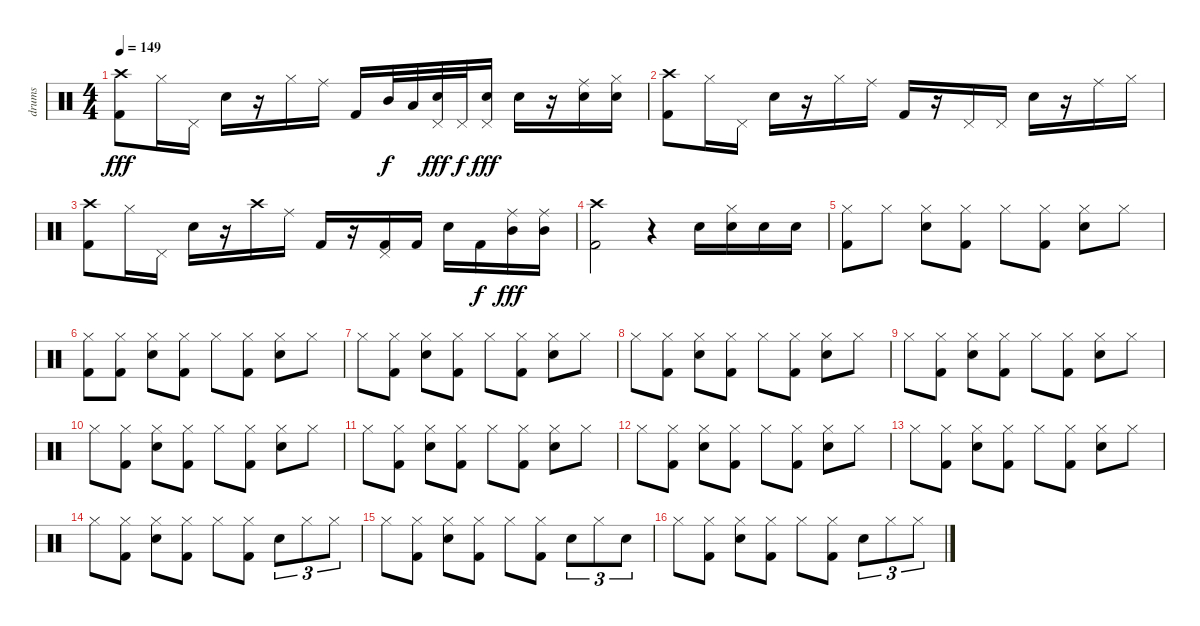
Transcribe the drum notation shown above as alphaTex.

\track ("drums" "drums") {instrument percussion}
\staff {score}
\articulation defaults
\ts (4 4)
\tempo 149
\clef neutral
\ks c
("Crash high (hit)" "Kick (hit) 2").8{dy fff} "Hi-Hat (closed)".16 "Pedal Hi-Hat (hit)".16 "Snare (hit) 2".16 r.16 "Hi-Hat (closed)".16 "Ride (middle)".16 "Kick (hit) 2".16 "Mid Tom (hit)".32{dy f} "Low Floor Tom (hit)".32 ("Pedal Hi-Hat (hit)" "Snare (hit) 2").32{dy fff} "Pedal Hi-Hat (hit)".32{dy f} ("Pedal Hi-Hat (hit)" "Snare (hit) 2").16{dy fff} "Snare (hit) 2".16 r.16 ("Ride (middle)" "Snare (hit) 2").16 ("Hi-Hat (closed)" "Snare (hit) 2").16 |
("Crash high (hit)" "Kick (hit) 2").8 "Hi-Hat (closed)".16 "Pedal Hi-Hat (hit)".16 "Snare (hit) 2".16 r.16 "Hi-Hat (closed)".16 "Ride (middle)".16 "Kick (hit) 2".16 r.16 "Pedal Hi-Hat (hit)".16 "Pedal Hi-Hat (hit)".16 "Snare (hit) 2".16 r.16 "Ride (middle)".16 "Hi-Hat (closed)".16 |
("Crash high (hit)" "Kick (hit) 2").8 "Hi-Hat (closed)".16 "Pedal Hi-Hat (hit)".16 "Snare (hit) 2".16 r.16 "Crash high (hit)".16 "Ride (middle)".16 "Kick (hit) 2".16 r.16 ("Pedal Hi-Hat (hit)" "Kick (hit) 2").16 "Kick (hit) 2".16 "Snare (hit) 2".16 "Kick (hit) 2".16{dy f} ("Ride (middle)" "Mid Tom (hit)").16{dy fff} ("Ride (middle)" "Mid Tom (hit)").16 |
("Crash high (hit)" "Kick (hit) 2").2 r.4 "Snare (hit) 2".16 ("Hi-Hat (closed)" "Snare (hit) 2").16 "Snare (hit) 2".16 "Snare (hit) 2".16 |
("Hi-Hat (closed)" "Kick (hit) 2").8 "Hi-Hat (closed)".8 ("Hi-Hat (closed)" "Snare (hit) 2").8 ("Hi-Hat (closed)" "Kick (hit) 2").8 "Hi-Hat (closed)".8 ("Hi-Hat (closed)" "Kick (hit) 2").8 ("Hi-Hat (closed)" "Snare (hit) 2").8 "Hi-Hat (closed)".8 |
("Hi-Hat (closed)" "Kick (hit) 2").8 ("Hi-Hat (closed)" "Kick (hit) 2").8 ("Hi-Hat (closed)" "Snare (hit) 2").8 ("Hi-Hat (closed)" "Kick (hit) 2").8 "Hi-Hat (closed)".8 ("Hi-Hat (closed)" "Kick (hit) 2").8 ("Hi-Hat (closed)" "Snare (hit) 2").8 "Hi-Hat (closed)".8 |
"Hi-Hat (closed)".8 ("Hi-Hat (closed)" "Kick (hit) 2").8 ("Hi-Hat (closed)" "Snare (hit) 2").8 ("Hi-Hat (closed)" "Kick (hit) 2").8 "Hi-Hat (closed)".8 ("Hi-Hat (closed)" "Kick (hit) 2").8 ("Hi-Hat (closed)" "Snare (hit) 2").8 "Hi-Hat (closed)".8 |
"Hi-Hat (closed)".8 ("Hi-Hat (closed)" "Kick (hit) 2").8 ("Hi-Hat (closed)" "Snare (hit) 2").8 ("Hi-Hat (closed)" "Kick (hit) 2").8 "Hi-Hat (closed)".8 ("Hi-Hat (closed)" "Kick (hit) 2").8 ("Hi-Hat (closed)" "Snare (hit) 2").8 "Hi-Hat (closed)".8 |
"Hi-Hat (closed)".8 ("Hi-Hat (closed)" "Kick (hit) 2").8 ("Hi-Hat (closed)" "Snare (hit) 2").8 ("Hi-Hat (closed)" "Kick (hit) 2").8 "Hi-Hat (closed)".8 ("Hi-Hat (closed)" "Kick (hit) 2").8 ("Hi-Hat (closed)" "Snare (hit) 2").8 "Hi-Hat (closed)".8 |
"Hi-Hat (closed)".8 ("Hi-Hat (closed)" "Kick (hit) 2").8 ("Hi-Hat (closed)" "Snare (hit) 2").8 ("Hi-Hat (closed)" "Kick (hit) 2").8 "Hi-Hat (closed)".8 ("Hi-Hat (closed)" "Kick (hit) 2").8 ("Hi-Hat (closed)" "Snare (hit) 2").8 "Hi-Hat (closed)".8 |
"Hi-Hat (closed)".8 ("Hi-Hat (closed)" "Kick (hit) 2").8 ("Hi-Hat (closed)" "Snare (hit) 2").8 ("Hi-Hat (closed)" "Kick (hit) 2").8 "Hi-Hat (closed)".8 ("Hi-Hat (closed)" "Kick (hit) 2").8 ("Hi-Hat (closed)" "Snare (hit) 2").8 "Hi-Hat (closed)".8 |
"Hi-Hat (closed)".8 ("Hi-Hat (closed)" "Kick (hit) 2").8 ("Hi-Hat (closed)" "Snare (hit) 2").8 ("Hi-Hat (closed)" "Kick (hit) 2").8 "Hi-Hat (closed)".8 ("Hi-Hat (closed)" "Kick (hit) 2").8 ("Hi-Hat (closed)" "Snare (hit) 2").8 "Hi-Hat (closed)".8 |
"Hi-Hat (closed)".8 ("Hi-Hat (closed)" "Kick (hit) 2").8 ("Hi-Hat (closed)" "Snare (hit) 2").8 ("Hi-Hat (closed)" "Kick (hit) 2").8 "Hi-Hat (closed)".8 ("Hi-Hat (closed)" "Kick (hit) 2").8 ("Hi-Hat (closed)" "Snare (hit) 2").8 "Hi-Hat (closed)".8 |
"Hi-Hat (closed)".8 ("Hi-Hat (closed)" "Kick (hit) 2").8 ("Hi-Hat (closed)" "Snare (hit) 2").8 ("Hi-Hat (closed)" "Kick (hit) 2").8 "Hi-Hat (closed)".8 ("Hi-Hat (closed)" "Kick (hit) 2").8 "Snare (hit) 2".8{tu (3 2)} "Hi-Hat (closed)".8{tu (3 2)} "Hi-Hat (closed)".8{tu (3 2)} |
"Hi-Hat (closed)".8 ("Hi-Hat (closed)" "Kick (hit) 2").8 ("Hi-Hat (closed)" "Snare (hit) 2").8 ("Hi-Hat (closed)" "Kick (hit) 2").8 "Hi-Hat (closed)".8 ("Hi-Hat (closed)" "Kick (hit) 2").8 "Snare (hit) 2".8{tu (3 2)} "Hi-Hat (closed)".8{tu (3 2)} "Snare (hit) 2".8{tu (3 2)} |
"Hi-Hat (closed)".8 ("Hi-Hat (closed)" "Kick (hit) 2").8 ("Hi-Hat (closed)" "Snare (hit) 2").8 ("Hi-Hat (closed)" "Kick (hit) 2").8 "Hi-Hat (closed)".8 ("Hi-Hat (closed)" "Kick (hit) 2").8 "Snare (hit) 2".8{tu (3 2)} "Hi-Hat (closed)".8{tu (3 2)} "Hi-Hat (closed)".8{tu (3 2)}
